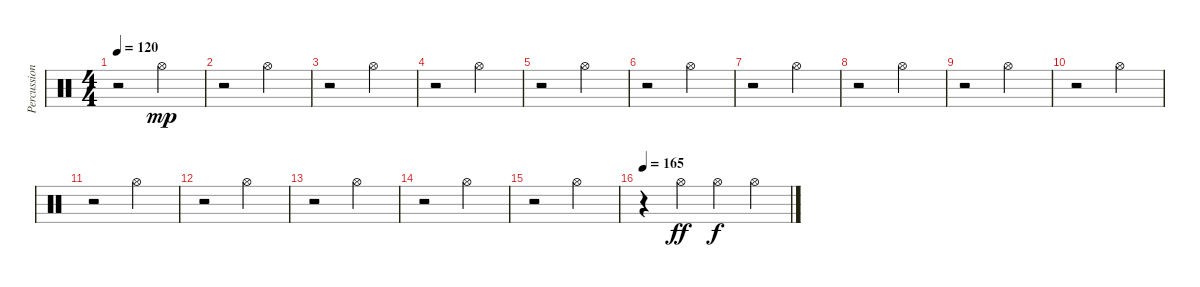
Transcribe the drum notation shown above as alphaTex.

\track ("Percussion" "Percussion") {instrument percussion}
\staff {score}
\articulation defaults
\ts (4 4)
\tempo 120
\clef neutral
\ks c
r.2{dy mp} "Hi-Hat (open)".2 |
r.2 "Hi-Hat (open)".2 |
r.2 "Hi-Hat (open)".2 |
r.2 "Hi-Hat (open)".2 |
r.2 "Hi-Hat (open)".2 |
r.2 "Hi-Hat (open)".2 |
r.2 "Hi-Hat (open)".2 |
r.2 "Hi-Hat (open)".2 |
r.2 "Hi-Hat (open)".2 |
r.2 "Hi-Hat (open)".2 |
r.2 "Hi-Hat (open)".2 |
r.2 "Hi-Hat (open)".2 |
r.2 "Hi-Hat (open)".2 |
r.2 "Hi-Hat (open)".2 |
r.2 "Hi-Hat (open)".2 |
\tempo 165
r.4 "Hi-Hat (open)".4{dy ff} "Hi-Hat (open)".4{dy f} "Hi-Hat (open)".4
